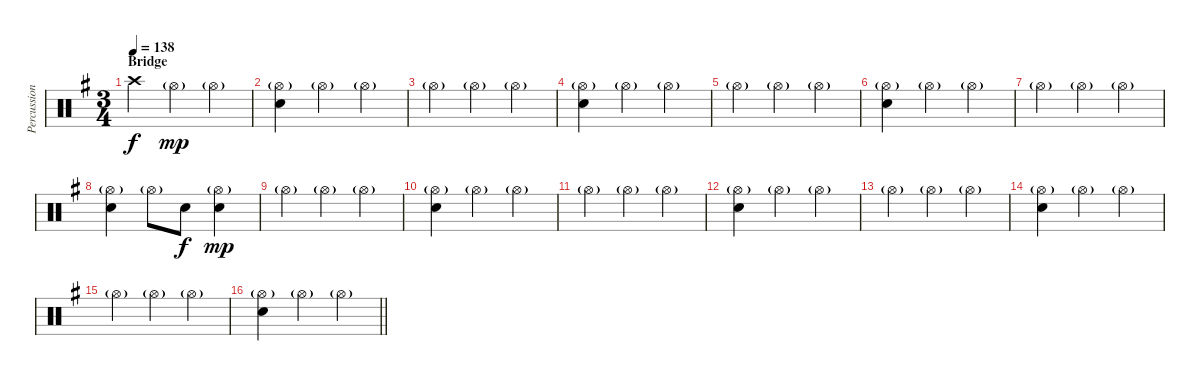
\track ("Percussion (Thomen Stauch)" "Percussion") {instrument percussion}
\staff {score}
\articulation defaults
\ts (3 4)
\section ("" "Bridge")
\tempo 138
\clef neutral
\ks eminor "Crash high (hit)".4{dy f} "Hi-Hat (open)"{g}.4{dy mp} "Hi-Hat (open)"{g}.4
|
("Hi-Hat (open)"{g} "Snare (hit) 2").4 "Hi-Hat (open)"{g}.4 "Hi-Hat (open)"{g}.4 |
"Hi-Hat (open)"{g}.4 "Hi-Hat (open)"{g}.4 "Hi-Hat (open)"{g}.4 |
("Hi-Hat (open)"{g} "Snare (hit) 2").4 "Hi-Hat (open)"{g}.4 "Hi-Hat (open)"{g}.4 |
"Hi-Hat (open)"{g}.4 "Hi-Hat (open)"{g}.4 "Hi-Hat (open)"{g}.4 |
("Hi-Hat (open)"{g} "Snare (hit) 2").4 "Hi-Hat (open)"{g}.4 "Hi-Hat (open)"{g}.4 |
"Hi-Hat (open)"{g}.4 "Hi-Hat (open)"{g}.4 "Hi-Hat (open)"{g}.4 |
("Hi-Hat (open)"{g} "Snare (hit) 2").4 "Hi-Hat (open)"{g}.8 "Snare (hit) 2".8{dy f} ("Hi-Hat (open)"{g} "Snare (hit) 2").4{dy mp} |
"Hi-Hat (open)"{g}.4 "Hi-Hat (open)"{g}.4 "Hi-Hat (open)"{g}.4 |
("Hi-Hat (open)"{g} "Snare (hit) 2").4 "Hi-Hat (open)"{g}.4 "Hi-Hat (open)"{g}.4 |
"Hi-Hat (open)"{g}.4 "Hi-Hat (open)"{g}.4 "Hi-Hat (open)"{g}.4 |
("Hi-Hat (open)"{g} "Snare (hit) 2").4 "Hi-Hat (open)"{g}.4 "Hi-Hat (open)"{g}.4 |
"Hi-Hat (open)"{g}.4 "Hi-Hat (open)"{g}.4 "Hi-Hat (open)"{g}.4 |
("Hi-Hat (open)"{g} "Snare (hit) 2").4 "Hi-Hat (open)"{g}.4 "Hi-Hat (open)"{g}.4 |
"Hi-Hat (open)"{g}.4 "Hi-Hat (open)"{g}.4 "Hi-Hat (open)"{g}.4 |
\barLineRight lightlight
("Hi-Hat (open)"{g} "Snare (hit) 2").4 "Hi-Hat (open)"{g}.4 "Hi-Hat (open)"{g}.4
